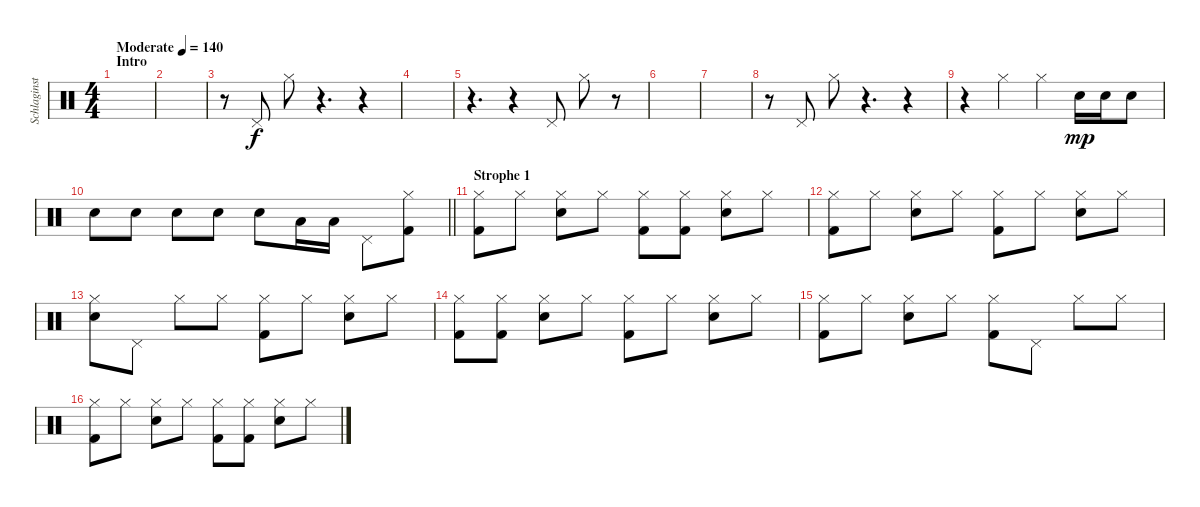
\track ("Schlaginstrumente - Auswahl" "Schlaginst") {instrument percussion}
\staff {score}
\articulation defaults
\ts (4 4)
\section ("" "Intro")
\tempo (140 "Moderate")
\clef neutral
\ks c
|
|
r.8 "Pedal Hi-Hat (hit)".8 "Hi-Hat (closed)".8 r.4{d} r.4 |
|
r.4{d} r.4 "Pedal Hi-Hat (hit)".8 "Hi-Hat (closed)".8 r.8 |
|
|
r.8 "Pedal Hi-Hat (hit)".8 "Hi-Hat (closed)".8 r.4{d} r.4 |
r.4 "Hi-Hat (closed)".4 "Hi-Hat (closed)".4 "Snare (hit) 2".16{dy mp} "Snare (hit) 2".16 "Snare (hit) 2".8 |
\barLineRight lightlight "Snare (hit) 2".8 "Snare (hit) 2".8 "Snare (hit) 2".8 "Snare (hit) 2".8 "Snare (hit) 2".8 "Low Tom (hit)".16 "Low Tom (hit)".16 "Pedal Hi-Hat (hit)".8
("Hi-Hat (closed)" "Kick (hit) 2").8 |
\section ("" "Strophe 1")
("Hi-Hat (closed)" "Kick (hit) 2").8 "Hi-Hat (closed)".8 ("Hi-Hat (closed)" "Snare (hit) 2").8 "Hi-Hat (closed)".8 ("Hi-Hat (closed)" "Kick (hit) 2").8 ("Hi-Hat (closed)" "Kick (hit) 2").8 ("Hi-Hat (closed)" "Snare (hit) 2").8 "Hi-Hat (closed)".8 |
("Hi-Hat (closed)" "Kick (hit) 2").8 "Hi-Hat (closed)".8 ("Hi-Hat (closed)" "Snare (hit) 2").8 "Hi-Hat (closed)".8 ("Hi-Hat (closed)" "Kick (hit) 2").8 "Hi-Hat (closed)".8 ("Hi-Hat (closed)" "Snare (hit) 2").8 "Hi-Hat (closed)".8 |
("Hi-Hat (closed)" "Snare (hit) 2").8 "Pedal Hi-Hat (hit)".8 "Hi-Hat (closed)".8 "Hi-Hat (closed)".8 ("Hi-Hat (closed)" "Kick (hit) 2").8 "Hi-Hat (closed)".8 ("Hi-Hat (closed)" "Snare (hit) 2").8 "Hi-Hat (closed)".8 |
("Hi-Hat (closed)" "Kick (hit) 2").8 ("Hi-Hat (closed)" "Kick (hit) 2").8 ("Hi-Hat (closed)" "Snare (hit) 2").8 "Hi-Hat (closed)".8 ("Hi-Hat (closed)" "Kick (hit) 2").8 "Hi-Hat (closed)".8 ("Hi-Hat (closed)" "Snare (hit) 2").8 "Hi-Hat (closed)".8 |
("Hi-Hat (closed)" "Kick (hit) 2").8 "Hi-Hat (closed)".8 ("Hi-Hat (closed)" "Snare (hit) 2").8 "Hi-Hat (closed)".8 ("Hi-Hat (closed)" "Kick (hit) 2").8 "Pedal Hi-Hat (hit)".8 "Hi-Hat (closed)".8 "Hi-Hat (closed)".8 |
("Hi-Hat (closed)" "Kick (hit) 2").8 "Hi-Hat (closed)".8 ("Hi-Hat (closed)" "Snare (hit) 2").8 "Hi-Hat (closed)".8 ("Hi-Hat (closed)" "Kick (hit) 2").8 ("Hi-Hat (closed)" "Kick (hit) 2").8 ("Hi-Hat (closed)" "Snare (hit) 2").8 "Hi-Hat (closed)".8
